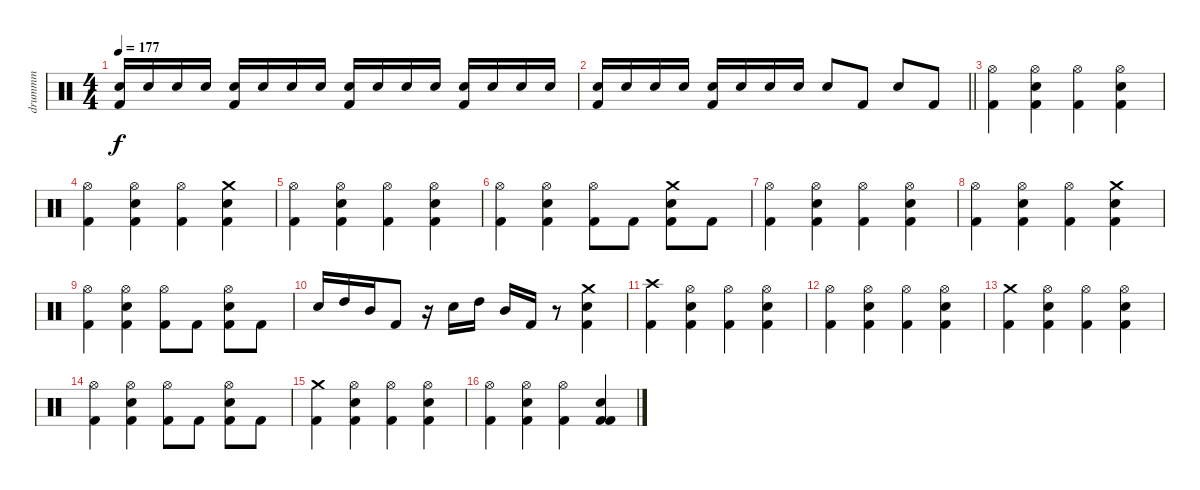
\track ("drummm" "drummm") {instrument percussion}
\staff {score}
\articulation defaults
\ts (4 4)
\tempo 177
\clef neutral
\ks c
("Snare (hit) 2" "Kick (hit) 2").16{dy f} "Snare (hit) 2".16 "Snare (hit) 2".16 "Snare (hit) 2".16 ("Snare (hit) 2" "Kick (hit) 2").16 "Snare (hit) 2".16 "Snare (hit) 2".16 "Snare (hit) 2".16 ("Snare (hit) 2" "Kick (hit) 2").16 "Snare (hit) 2".16 "Snare (hit) 2".16 "Snare (hit) 2".16 ("Snare (hit) 2" "Kick (hit) 2").16 "Snare (hit) 2".16 "Snare (hit) 2".16 "Snare (hit) 2".16 |
\barLineRight lightlight
("Snare (hit) 2" "Kick (hit) 2").16 "Snare (hit) 2".16 "Snare (hit) 2".16 "Snare (hit) 2".16 ("Snare (hit) 2" "Kick (hit) 2").16 "Snare (hit) 2".16 "Snare (hit) 2".16 "Snare (hit) 2".16 "Snare (hit) 2".8 "Kick (hit) 2".8 "Snare (hit) 2".8 "Kick (hit) 2".8 |
("Hi-Hat (open)" "Kick (hit) 2").4 ("Hi-Hat (open)" "Snare (hit) 2" "Kick (hit) 2").4 ("Hi-Hat (open)" "Kick (hit) 2").4 ("Hi-Hat (open)" "Snare (hit) 2" "Kick (hit) 2").4 |
("Hi-Hat (open)" "Kick (hit) 2").4 ("Hi-Hat (open)" "Snare (hit) 2" "Kick (hit) 2").4 ("Hi-Hat (open)" "Kick (hit) 2").4 ("Crash medium (hit)" "Snare (hit) 2" "Kick (hit) 2").4 |
("Hi-Hat (open)" "Kick (hit) 2").4 ("Hi-Hat (open)" "Snare (hit) 2" "Kick (hit) 2").4 ("Hi-Hat (open)" "Kick (hit) 2").4 ("Hi-Hat (open)" "Snare (hit) 2" "Kick (hit) 2").4 |
("Hi-Hat (open)" "Kick (hit) 2").4 ("Hi-Hat (open)" "Snare (hit) 2" "Kick (hit) 2").4 ("Hi-Hat (open)" "Kick (hit) 2").8 "Kick (hit) 2".8 ("Crash medium (hit)" "Snare (hit) 2" "Kick (hit) 2").8 "Kick (hit) 2".8 |
("Hi-Hat (open)" "Kick (hit) 2").4 ("Hi-Hat (open)" "Snare (hit) 2" "Kick (hit) 2").4 ("Hi-Hat (open)" "Kick (hit) 2").4 ("Hi-Hat (open)" "Snare (hit) 2" "Kick (hit) 2").4 |
("Hi-Hat (open)" "Kick (hit) 2").4 ("Hi-Hat (open)" "Snare (hit) 2" "Kick (hit) 2").4 ("Hi-Hat (open)" "Kick (hit) 2").4 ("Crash medium (hit)" "Snare (hit) 2" "Kick (hit) 2").4 |
("Hi-Hat (open)" "Kick (hit) 2").4 ("Hi-Hat (open)" "Snare (hit) 2" "Kick (hit) 2").4 ("Hi-Hat (open)" "Kick (hit) 2").8 "Kick (hit) 2".8 ("Hi-Hat (open)" "Snare (hit) 2" "Kick (hit) 2").8 "Kick (hit) 2".8 |
"Snare (hit) 2".16 "High Tom (hit)".16 "Mid Tom (hit)".16 "Kick (hit) 2".8 r.16 "Snare (hit) 2".16 "High Tom (hit)".16 "Mid Tom (hit)".16 "Kick (hit) 2".16 r.8 ("Crash medium (hit)" "Snare (hit) 2" "Kick (hit) 2").4 |
("Crash high (hit)" "Kick (hit) 2").4 ("Hi-Hat (open)" "Snare (hit) 2" "Kick (hit) 2").4 ("Hi-Hat (open)" "Kick (hit) 2").4 ("Hi-Hat (open)" "Snare (hit) 2" "Kick (hit) 2").4 |
("Hi-Hat (open)" "Kick (hit) 2").4 ("Hi-Hat (open)" "Snare (hit) 2" "Kick (hit) 2").4 ("Hi-Hat (open)" "Kick (hit) 2").4 ("Hi-Hat (open)" "Snare (hit) 2" "Kick (hit) 2").4 |
("Crash medium (hit)" "Kick (hit) 2").4 ("Hi-Hat (open)" "Snare (hit) 2" "Kick (hit) 2").4 ("Hi-Hat (open)" "Kick (hit) 2").4 ("Hi-Hat (open)" "Snare (hit) 2" "Kick (hit) 2").4 |
("Hi-Hat (open)" "Kick (hit) 2").4 ("Hi-Hat (open)" "Snare (hit) 2" "Kick (hit) 2").4 ("Hi-Hat (open)" "Kick (hit) 2").8 "Kick (hit) 2".8 ("Hi-Hat (open)" "Snare (hit) 2" "Kick (hit) 2").8 "Kick (hit) 2".8 |
("Crash medium (hit)" "Kick (hit) 2").4 ("Hi-Hat (open)" "Snare (hit) 2" "Kick (hit) 2").4 ("Hi-Hat (open)" "Kick (hit) 2").4 ("Hi-Hat (open)" "Snare (hit) 2" "Kick (hit) 2").4 |
("Hi-Hat (open)" "Kick (hit) 2").4 ("Hi-Hat (open)" "Snare (hit) 2" "Kick (hit) 2").4 ("Hi-Hat (open)" "Kick (hit) 2").4 ("Kick (hit) 2" "Snare (hit) 2" "Kick (hit) 2").4
